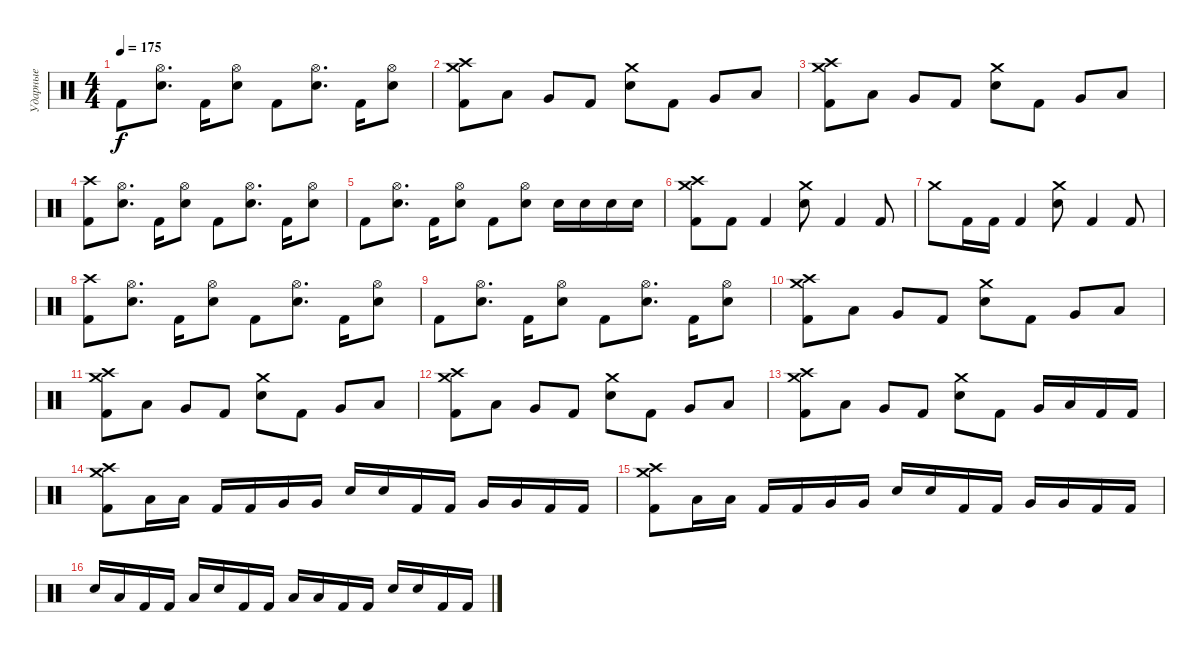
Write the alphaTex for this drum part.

\track ("Ударные" "Ударные") {instrument percussion}
\staff {score}
\articulation defaults
\ts (4 4)
\tempo 175
\clef neutral
\ks c "Kick (hit) 2".8{dy f}
("Hi-Hat (open)" "Electric Snare (hit)").8{d} "Kick (hit) 2".16 ("Hi-Hat (open)" "Electric Snare (hit)").8 "Kick (hit) 2".8 ("Hi-Hat (open)" "Electric Snare (hit)").8{d} "Kick (hit) 2".16 ("Hi-Hat (open)" "Electric Snare (hit)").8 |
("Crash high (hit)" "Crash medium (hit)" "Kick (hit) 2").8 "Low Tom (hit)".8 "Very Low Tom (hit)".8 "Kick (hit) 2".8 ("Crash medium (hit)" "Electric Snare (hit)").8 "Kick (hit) 2".8 "Very Low Tom (hit)".8 "Low Tom (hit)".8 |
("Crash high (hit)" "Crash medium (hit)" "Kick (hit) 2").8 "Low Tom (hit)".8 "Very Low Tom (hit)".8 "Kick (hit) 2".8 ("Crash medium (hit)" "Electric Snare (hit)").8 "Kick (hit) 2".8 "Very Low Tom (hit)".8 "Low Tom (hit)".8 |
("Crash high (hit)" "Kick (hit) 2").8 ("Hi-Hat (open)" "Electric Snare (hit)").8{d} "Kick (hit) 2".16 ("Hi-Hat (open)" "Electric Snare (hit)").8 "Kick (hit) 2".8 ("Hi-Hat (open)" "Electric Snare (hit)").8{d} "Kick (hit) 2".16 ("Hi-Hat (open)" "Electric Snare (hit)").8 |
"Kick (hit) 2".8 ("Hi-Hat (open)" "Electric Snare (hit)").8{d} "Kick (hit) 2".16 ("Hi-Hat (open)" "Electric Snare (hit)").8 "Kick (hit) 2".8 ("Hi-Hat (open)" "Electric Snare (hit)").8 "Electric Snare (hit)".16 "Electric Snare (hit)".16 "Electric Snare (hit)".16 "Electric Snare (hit)".16 |
("Crash high (hit)" "Crash medium (hit)" "Kick (hit) 2").8 "Kick (hit) 2".8 "Kick (hit) 2".4 ("Crash medium (hit)" "Electric Snare (hit)").8 "Kick (hit) 2".4 "Kick (hit) 2".8 |
"Crash medium (hit)".8 "Kick (hit) 2".16 "Kick (hit) 2".16 "Kick (hit) 2".4 ("Crash medium (hit)" "Electric Snare (hit)").8 "Kick (hit) 2".4 "Kick (hit) 2".8 |
("Crash high (hit)" "Kick (hit) 2").8 ("Hi-Hat (open)" "Electric Snare (hit)").8{d} "Kick (hit) 2".16 ("Hi-Hat (open)" "Electric Snare (hit)").8 "Kick (hit) 2".8 ("Hi-Hat (open)" "Electric Snare (hit)").8{d} "Kick (hit) 2".16 ("Hi-Hat (open)" "Electric Snare (hit)").8 |
"Kick (hit) 2".8 ("Hi-Hat (open)" "Electric Snare (hit)").8{d} "Kick (hit) 2".16 ("Hi-Hat (open)" "Electric Snare (hit)").8 "Kick (hit) 2".8 ("Hi-Hat (open)" "Electric Snare (hit)").8{d} "Kick (hit) 2".16 ("Hi-Hat (open)" "Electric Snare (hit)").8 |
("Crash high (hit)" "Crash medium (hit)" "Kick (hit) 2").8 "Low Tom (hit)".8 "Very Low Tom (hit)".8 "Kick (hit) 2".8 ("Crash medium (hit)" "Electric Snare (hit)").8 "Kick (hit) 2".8 "Very Low Tom (hit)".8 "Low Tom (hit)".8 |
("Crash high (hit)" "Crash medium (hit)" "Kick (hit) 2").8 "Low Tom (hit)".8 "Very Low Tom (hit)".8 "Kick (hit) 2".8 ("Crash medium (hit)" "Electric Snare (hit)").8 "Kick (hit) 2".8 "Very Low Tom (hit)".8 "Low Tom (hit)".8 |
("Crash high (hit)" "Crash medium (hit)" "Kick (hit) 2").8 "Low Tom (hit)".8 "Very Low Tom (hit)".8 "Kick (hit) 2".8 ("Crash medium (hit)" "Electric Snare (hit)").8 "Kick (hit) 2".8 "Very Low Tom (hit)".8 "Low Tom (hit)".8 |
("Crash high (hit)" "Crash medium (hit)" "Kick (hit) 2").8 "Low Tom (hit)".8 "Very Low Tom (hit)".8 "Kick (hit) 2".8 ("Crash medium (hit)" "Electric Snare (hit)").8 "Kick (hit) 2".8 "Very Low Tom (hit)".16 "Low Tom (hit)".16 "Kick (hit) 2".16 "Kick (hit) 2".16 |
("Crash high (hit)" "Crash medium (hit)" "Kick (hit) 2").8 "Low Tom (hit)".16 "Low Tom (hit)".16 "Kick (hit) 2".16 "Kick (hit) 2".16 "Very Low Tom (hit)".16 "Very Low Tom (hit)".16 "Electric Snare (hit)".16 "Electric Snare (hit)".16 "Kick (hit) 2".16 "Kick (hit) 2".16 "Very Low Tom (hit)".16 "Very Low Tom (hit)".16 "Kick (hit) 2".16 "Kick (hit) 2".16 |
("Crash high (hit)" "Crash medium (hit)" "Kick (hit) 2").8 "Low Tom (hit)".16 "Low Tom (hit)".16 "Kick (hit) 2".16 "Kick (hit) 2".16 "Very Low Tom (hit)".16 "Very Low Tom (hit)".16 "Electric Snare (hit)".16 "Electric Snare (hit)".16 "Kick (hit) 2".16 "Kick (hit) 2".16 "Very Low Tom (hit)".16 "Very Low Tom (hit)".16 "Kick (hit) 2".16 "Kick (hit) 2".16 |
"Electric Snare (hit)".16 "Low Tom (hit)".16 "Kick (hit) 2".16 "Kick (hit) 2".16 "Low Tom (hit)".16 "Electric Snare (hit)".16 "Kick (hit) 2".16 "Kick (hit) 2".16 "Low Tom (hit)".16 "Low Tom (hit)".16 "Kick (hit) 2".16 "Kick (hit) 2".16 "Electric Snare (hit)".16 "Electric Snare (hit)".16 "Kick (hit) 2".16 "Kick (hit) 2".16
